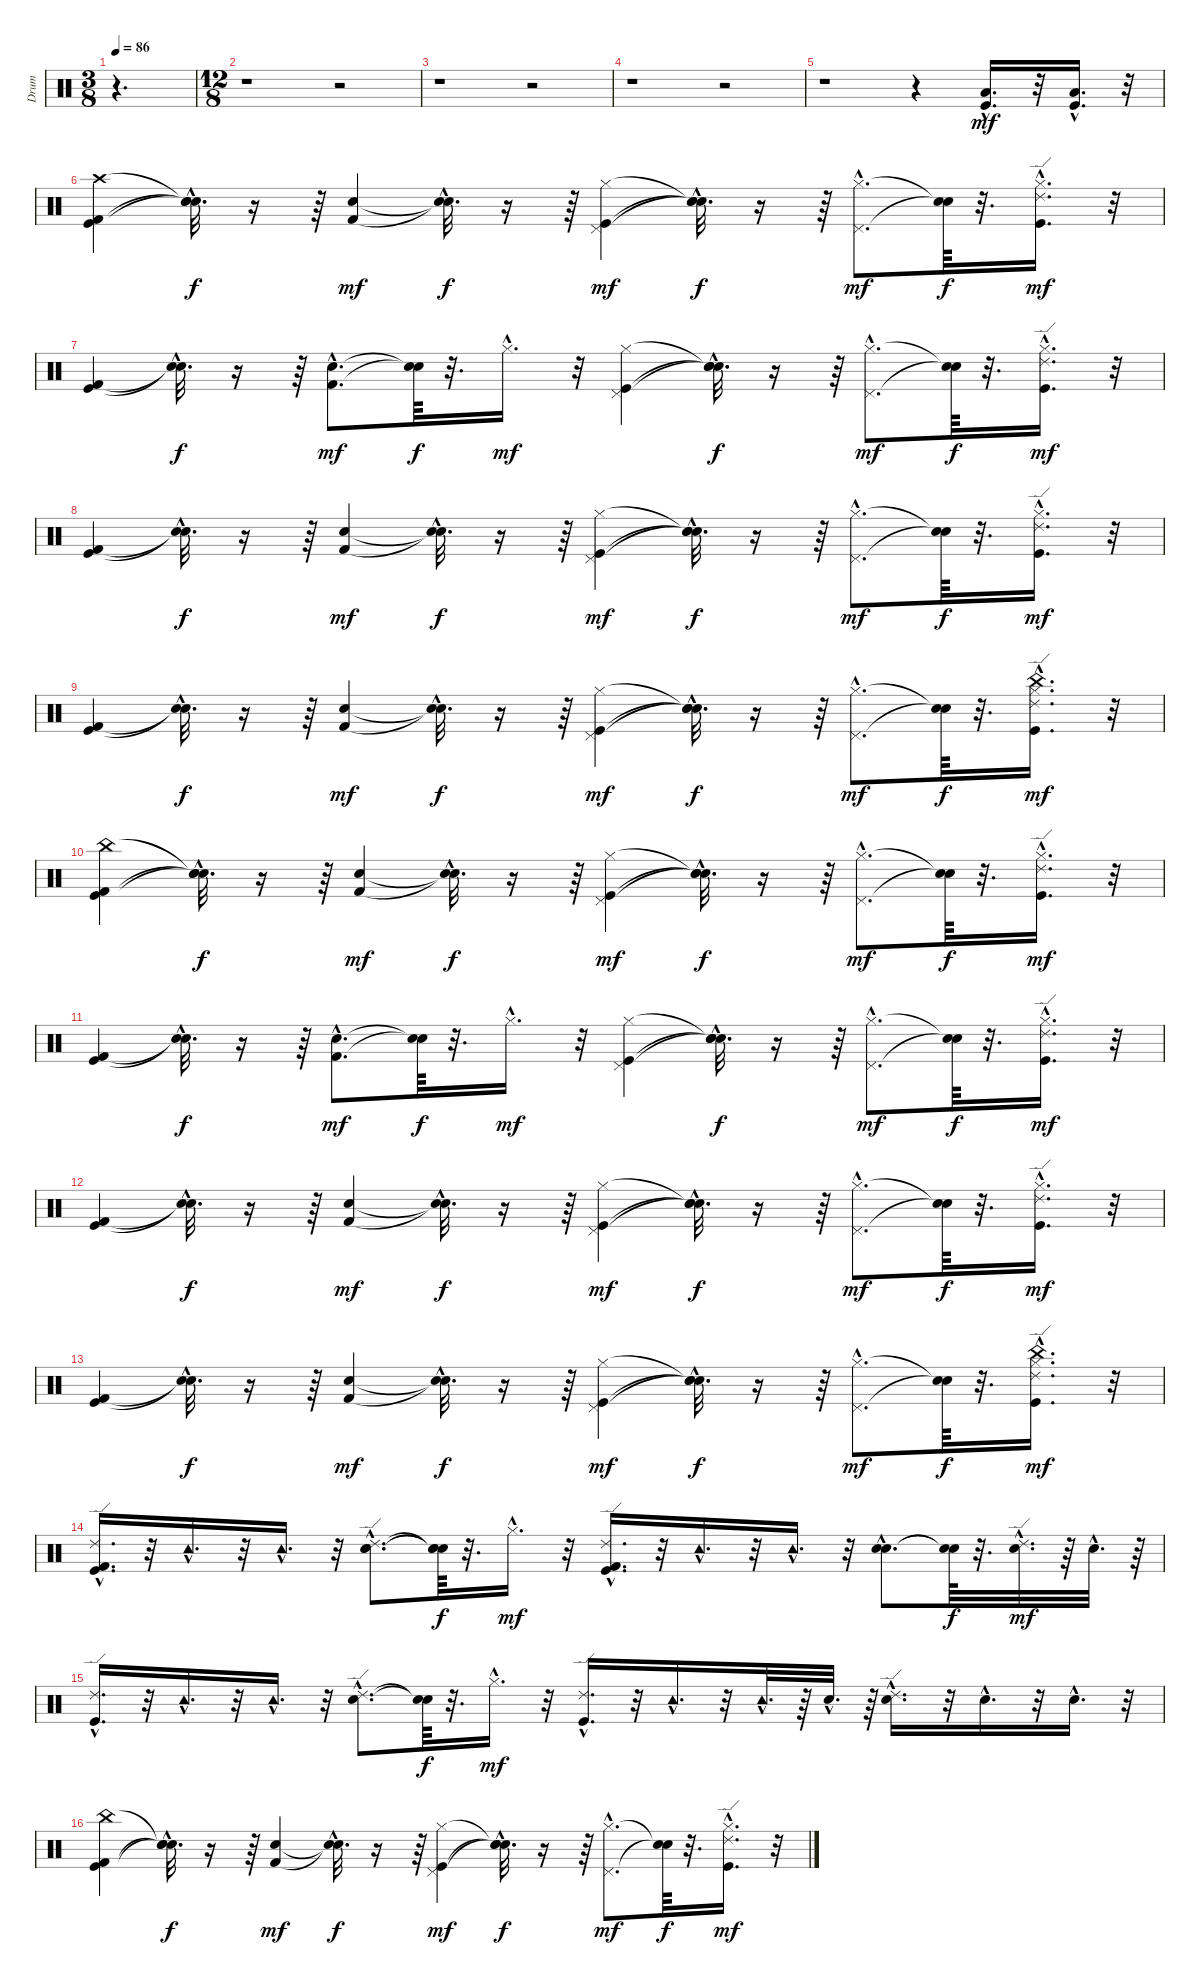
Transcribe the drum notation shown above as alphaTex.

\track ("Drum" "Drum") {instrument percussion}
\staff {score}
\articulation defaults
\ts (3 8)
\tempo 86
\clef neutral
\ks c
r.4{d dy mf} |
\ts (12 8)
r.1 r.2 |
r.1 r.2 |
r.1 r.2 |
r.1 r.4 ("Low Tom (hit)"{hac} "Kick (hit)"{hac}).16{d} r.32 ("Low Tom (hit)"{hac} "Kick (hit)"{hac}).16{d} r.32 |
("Kick (hit) 2" "Kick (hit)" "Crash high (hit)").4 ("Snare (hit)"{hac t} "Snare (hit)"{hac t} "Snare (hit)"{hac t}).32{d dy f} r.16 r.64 ("Kick (hit) 2" "Snare (hit) 2").4{dy mf} ("Snare (hit)"{hac t} "Snare (hit)"{hac t}).32{d dy f} r.16 r.64 ("Pedal Hi-Hat (hit)" "Hi-Hat (closed)" "Kick (hit)").4{dy mf} ("Snare (hit)"{hac t} "Snare (hit)"{hac t} "Snare (hit)"{hac t}).32{d dy f} r.16 r.64 ("Hi-Hat (closed)"{hac} "Pedal Hi-Hat (hit)"{hac}).8{d dy mf} ("Snare (hit)"{t} "Snare (hit)"{t}).64{dy f} r.32{d} ("Hi-Hat (closed)"{hac} "Ride (edge) 2"{hac} "Kick (hit)"{hac}).16{d dy mf} r.32 |
("Kick (hit)" "Kick (hit) 2").4 ("Snare (hit)"{hac t} "Snare (hit)"{hac t}).32{d dy f} r.16 r.64 ("Snare (hit) 2"{hac} "Kick (hit) 2"{hac}).8{d dy mf} ("Snare (hit)"{t} "Snare (hit)"{t}).64{dy f} r.32{d} "Hi-Hat (closed)"{hac}.16{d dy mf} r.32 ("Hi-Hat (closed)" "Pedal Hi-Hat (hit)" "Kick (hit)").4 ("Snare (hit)"{hac t} "Snare (hit)"{hac t} "Snare (hit)"{hac t}).32{d dy f} r.16 r.64 ("Hi-Hat (closed)"{hac} "Pedal Hi-Hat (hit)"{hac}).8{d dy mf} ("Snare (hit)"{t} "Snare (hit)"{t}).64{dy f} r.32{d} ("Hi-Hat (closed)"{hac} "Kick (hit)"{hac} "Ride (edge) 2"{hac}).16{d dy mf} r.32 |
("Kick (hit) 2" "Kick (hit)").4 ("Snare (hit)"{hac t} "Snare (hit)"{hac t}).32{d dy f} r.16 r.64 ("Snare (hit) 2" "Kick (hit) 2").4{dy mf} ("Snare (hit)"{hac t} "Snare (hit)"{hac t}).32{d dy f} r.16 r.64 ("Hi-Hat (closed)" "Pedal Hi-Hat (hit)" "Kick (hit)").4{dy mf} ("Snare (hit)"{hac t} "Snare (hit)"{hac t} "Snare (hit)"{hac t}).32{d dy f} r.16 r.64 ("Pedal Hi-Hat (hit)"{hac} "Hi-Hat (closed)"{hac}).8{d dy mf} ("Snare (hit)"{t} "Snare (hit)"{t}).64{dy f} r.32{d} ("Hi-Hat (closed)"{hac} "Kick (hit)"{hac} "Ride (edge) 2"{hac}).16{d dy mf} r.32 |
("Kick (hit) 2" "Kick (hit)").4 ("Snare (hit)"{hac t} "Snare (hit)"{hac t}).32{d dy f} r.16 r.64 ("Kick (hit) 2" "Snare (hit) 2").4{dy mf} ("Snare (hit)"{hac t} "Snare (hit)"{hac t}).32{d dy f} r.16 r.64 ("Kick (hit)" "Pedal Hi-Hat (hit)" "Hi-Hat (closed)").4{dy mf} ("Snare (hit)"{hac t} "Snare (hit)"{hac t} "Snare (hit)"{hac t}).32{d dy f} r.16 r.64 ("Hi-Hat (closed)"{hac} "Pedal Hi-Hat (hit)"{hac}).8{d dy mf} ("Snare (hit)"{t} "Snare (hit)"{t}).64{dy f} r.32{d} ("Ride (edge) 2"{hac} "Kick (hit)"{hac} "Hi-Hat (closed)"{hac} "China (hit)"{hac}).16{d dy mf} r.32 |
("China (hit)" "Kick (hit)" "Kick (hit) 2").4 ("Snare (hit)"{hac t} "Snare (hit)"{hac t} "Snare (hit)"{hac t}).32{d dy f} r.16 r.64 ("Snare (hit) 2" "Kick (hit) 2").4{dy mf} ("Snare (hit)"{hac t} "Snare (hit)"{hac t}).32{d dy f} r.16 r.64 ("Kick (hit)" "Hi-Hat (closed)" "Pedal Hi-Hat (hit)").4{dy mf} ("Snare (hit)"{hac t} "Snare (hit)"{hac t} "Snare (hit)"{hac t}).32{d dy f} r.16 r.64 ("Pedal Hi-Hat (hit)"{hac} "Hi-Hat (closed)"{hac}).8{d dy mf} ("Snare (hit)"{t} "Snare (hit)"{t}).64{dy f} r.32{d} ("Kick (hit)"{hac} "Ride (edge) 2"{hac} "Hi-Hat (closed)"{hac}).16{d dy mf} r.32 |
("Kick (hit) 2" "Kick (hit)").4 ("Snare (hit)"{hac t} "Snare (hit)"{hac t}).32{d dy f} r.16 r.64 ("Kick (hit) 2"{hac} "Snare (hit) 2"{hac}).8{d dy mf} ("Snare (hit)"{t} "Snare (hit)"{t}).64{dy f} r.32{d} "Hi-Hat (closed)"{hac}.16{d dy mf} r.32 ("Kick (hit)" "Pedal Hi-Hat (hit)" "Hi-Hat (closed)").4 ("Snare (hit)"{hac t} "Snare (hit)"{hac t} "Snare (hit)"{hac t}).32{d dy f} r.16 r.64 ("Pedal Hi-Hat (hit)"{hac} "Hi-Hat (closed)"{hac}).8{d dy mf} ("Snare (hit)"{t} "Snare (hit)"{t}).64{dy f} r.32{d} ("Ride (edge) 2"{hac} "Kick (hit)"{hac} "Hi-Hat (closed)"{hac}).16{d dy mf} r.32 |
("Kick (hit)" "Kick (hit) 2").4 ("Snare (hit)"{hac t} "Snare (hit)"{hac t}).32{d dy f} r.16 r.64 ("Kick (hit) 2" "Snare (hit) 2").4{dy mf} ("Snare (hit)"{hac t} "Snare (hit)"{hac t}).32{d dy f} r.16 r.64 ("Kick (hit)" "Pedal Hi-Hat (hit)" "Hi-Hat (closed)").4{dy mf} ("Snare (hit)"{hac t} "Snare (hit)"{hac t} "Snare (hit)"{hac t}).32{d dy f} r.16 r.64 ("Hi-Hat (closed)"{hac} "Pedal Hi-Hat (hit)"{hac}).8{d dy mf} ("Snare (hit)"{t} "Snare (hit)"{t}).64{dy f} r.32{d} ("Ride (edge) 2"{hac} "Kick (hit)"{hac} "Hi-Hat (closed)"{hac}).16{d dy mf} r.32 |
("Kick (hit)" "Kick (hit) 2").4 ("Snare (hit)"{hac t} "Snare (hit)"{hac t}).32{d dy f} r.16 r.64 ("Snare (hit) 2" "Kick (hit) 2").4{dy mf} ("Snare (hit)"{hac t} "Snare (hit)"{hac t}).32{d dy f} r.16 r.64 ("Hi-Hat (closed)" "Pedal Hi-Hat (hit)" "Kick (hit)").4{dy mf} ("Snare (hit)"{hac t} "Snare (hit)"{hac t} "Snare (hit)"{hac t}).32{d dy f} r.16 r.64 ("Pedal Hi-Hat (hit)"{hac} "Hi-Hat (closed)"{hac}).8{d dy mf} ("Snare (hit)"{t} "Snare (hit)"{t}).64{dy f} r.32{d} ("China (hit)"{hac} "Hi-Hat (closed)"{hac} "Kick (hit)"{hac} "Ride (edge) 2"{hac}).16{d dy mf} r.32 |
("Ride (edge) 2"{hac} "Kick (hit) 2"{hac} "Kick (hit)"{hac}).16{d} r.32 "Tambourine (hit)"{hac}.16{d} r.32 "Tambourine (hit)"{hac}.16{d} r.32 ("Snare (hit) 2"{hac} "Electric Snare (hit)"{hac} "Ride (edge) 2"{hac}).8{d} ("Snare (hit)"{t} "Snare (hit)"{t} "Snare (hit)"{t}).64{dy f} r.32{d} "Hi-Hat (closed)"{hac}.16{d dy mf} r.32 ("Ride (edge) 2"{hac} "Kick (hit)"{hac} "Kick (hit) 2"{hac}).16{d} r.32 "Tambourine (hit)"{hac}.16{d} r.32 "Tambourine (hit)"{hac}.16{d} r.32 ("Snare (hit) 2"{hac} "Electric Snare (hit)"{hac}).8{d} ("Snare (hit)"{t} "Snare (hit)"{t}).64{dy f} r.32{d} ("Snare (hit) 2"{hac} "Ride (edge) 2"{hac}).32{d dy mf} r.64 "Snare (hit) 2"{hac}.32{d} r.64 |
("Kick (hit)"{hac} "Ride (edge) 2"{hac}).16{d} r.32 "Tambourine (hit)"{hac}.16{d} r.32 "Tambourine (hit)"{hac}.16{d} r.32 ("Snare (hit) 2"{hac} "Ride (edge) 2"{hac}).8{d} ("Snare (hit)"{t} "Snare (hit)"{t}).64{dy f} r.32{d} "Hi-Hat (closed)"{hac}.16{d dy mf} r.32 ("Kick (hit)"{hac} "Ride (edge) 2"{hac}).16{d} r.32 "Tambourine (hit)"{hac}.16{d} r.32 "Tambourine (hit)"{hac}.32{d} r.64 "Snare (hit) 2"{hac}.32{d} r.64 ("Ride (edge) 2"{hac} "Snare (hit) 2"{hac}).16{d} r.32 "Snare (hit) 2"{hac}.16{d} r.32 "Snare (hit) 2"{hac}.16{d} r.32 |
("Kick (hit) 2" "China (hit)" "Kick (hit)").4 ("Snare (hit)"{hac t} "Snare (hit)"{hac t} "Snare (hit)"{hac t}).32{d dy f} r.16 r.64 ("Snare (hit) 2" "Kick (hit) 2").4{dy mf} ("Snare (hit)"{hac t} "Snare (hit)"{hac t}).32{d dy f} r.16 r.64 ("Pedal Hi-Hat (hit)" "Hi-Hat (closed)" "Kick (hit)").4{dy mf} ("Snare (hit)"{hac t} "Snare (hit)"{hac t} "Snare (hit)"{hac t}).32{d dy f} r.16 r.64 ("Hi-Hat (closed)"{hac} "Pedal Hi-Hat (hit)"{hac}).8{d dy mf} ("Snare (hit)"{t} "Snare (hit)"{t}).64{dy f} r.32{d} ("Kick (hit)"{hac} "Hi-Hat (closed)"{hac} "Ride (edge) 2"{hac}).16{d dy mf} r.32
